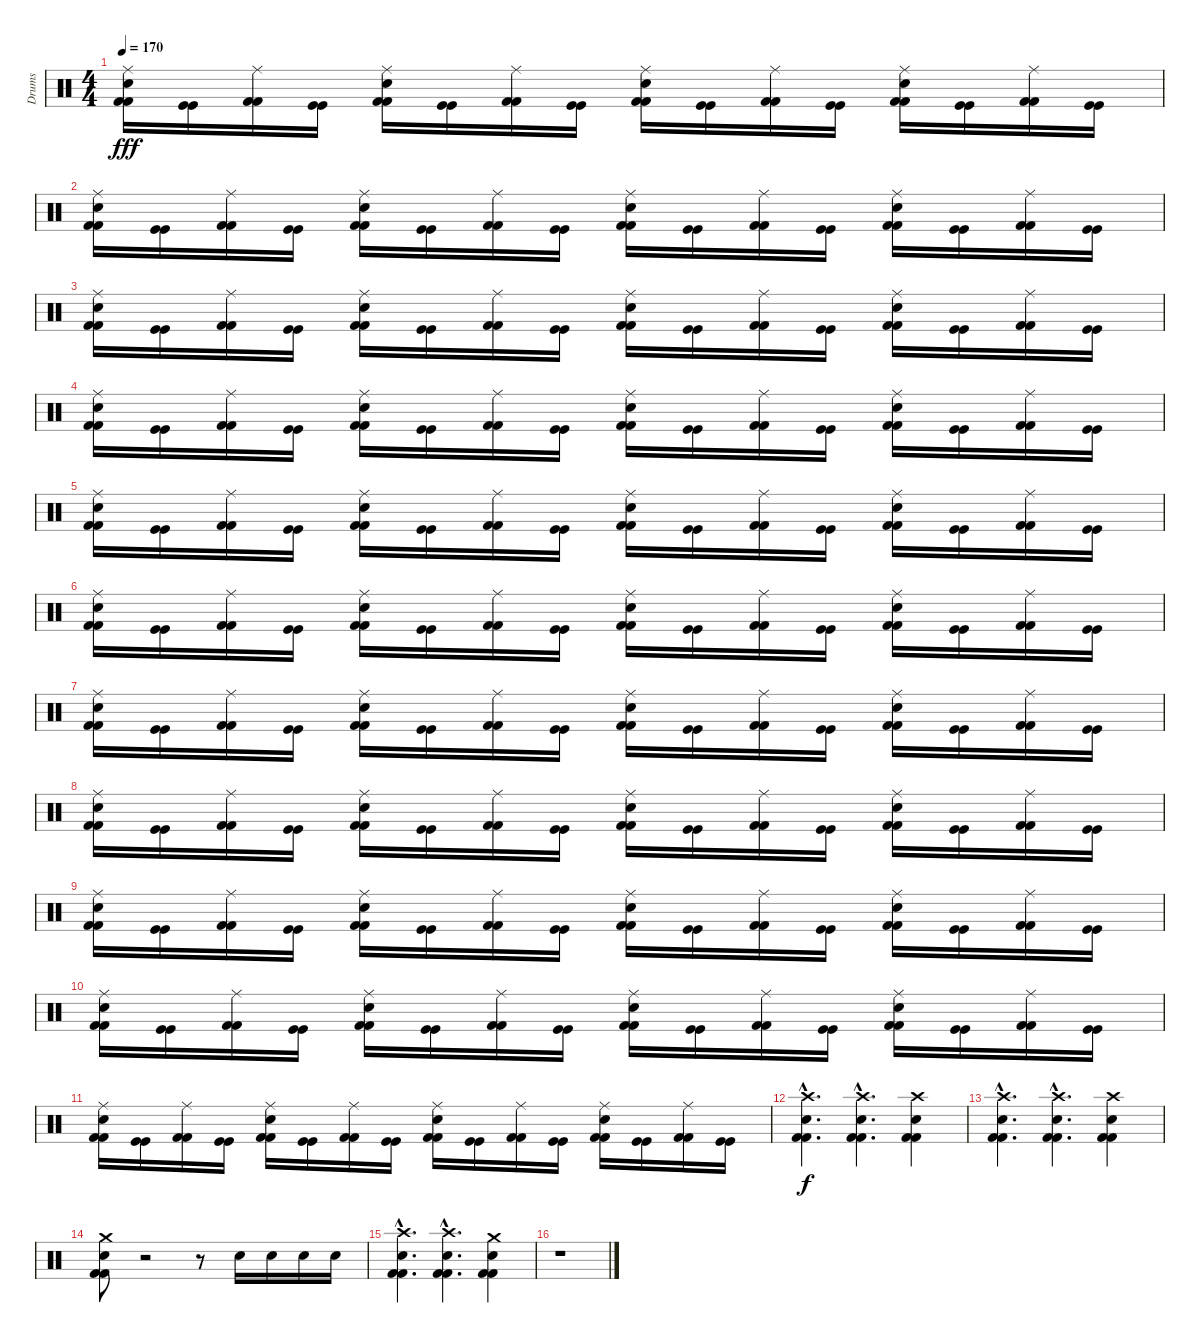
\track ("Drums" "Drums") {instrument percussion}
\staff {score}
\articulation defaults
\ts (4 4)
\tempo 170
\clef neutral
\ks c
("Kick (hit) 2" "Kick (hit) 2" "Electric Snare (hit)" "Ride (middle)").16{dy fff} ("Kick (hit)" "Kick (hit)").16 ("Kick (hit) 2" "Kick (hit) 2" "Ride (middle)").16 ("Kick (hit)" "Kick (hit)").16 ("Kick (hit) 2" "Kick (hit) 2" "Electric Snare (hit)" "Ride (middle)").16 ("Kick (hit)" "Kick (hit)").16 ("Kick (hit) 2" "Kick (hit) 2" "Ride (middle)").16 ("Kick (hit)" "Kick (hit)").16 ("Kick (hit) 2" "Kick (hit) 2" "Electric Snare (hit)" "Ride (middle)").16 ("Kick (hit)" "Kick (hit)").16 ("Kick (hit) 2" "Kick (hit) 2" "Ride (middle)").16 ("Kick (hit)" "Kick (hit)").16 ("Kick (hit) 2" "Kick (hit) 2" "Electric Snare (hit)" "Ride (middle)").16 ("Kick (hit)" "Kick (hit)").16 ("Kick (hit) 2" "Kick (hit) 2" "Ride (middle)").16 ("Kick (hit)" "Kick (hit)").16 |
("Kick (hit) 2" "Kick (hit) 2" "Electric Snare (hit)" "Ride (middle)").16 ("Kick (hit)" "Kick (hit)").16 ("Kick (hit) 2" "Kick (hit) 2" "Ride (middle)").16 ("Kick (hit)" "Kick (hit)").16 ("Kick (hit) 2" "Kick (hit) 2" "Electric Snare (hit)" "Ride (middle)").16 ("Kick (hit)" "Kick (hit)").16 ("Kick (hit) 2" "Kick (hit) 2" "Ride (middle)").16 ("Kick (hit)" "Kick (hit)").16 ("Kick (hit) 2" "Kick (hit) 2" "Electric Snare (hit)" "Ride (middle)").16 ("Kick (hit)" "Kick (hit)").16 ("Kick (hit) 2" "Kick (hit) 2" "Ride (middle)").16 ("Kick (hit)" "Kick (hit)").16 ("Kick (hit) 2" "Kick (hit) 2" "Electric Snare (hit)" "Ride (middle)").16 ("Kick (hit)" "Kick (hit)").16 ("Kick (hit) 2" "Kick (hit) 2" "Ride (middle)").16 ("Kick (hit)" "Kick (hit)").16 |
("Kick (hit) 2" "Kick (hit) 2" "Electric Snare (hit)" "Ride (middle)").16 ("Kick (hit)" "Kick (hit)").16 ("Kick (hit) 2" "Kick (hit) 2" "Ride (middle)").16 ("Kick (hit)" "Kick (hit)").16 ("Kick (hit) 2" "Kick (hit) 2" "Electric Snare (hit)" "Ride (middle)").16 ("Kick (hit)" "Kick (hit)").16 ("Kick (hit) 2" "Kick (hit) 2" "Ride (middle)").16 ("Kick (hit)" "Kick (hit)").16 ("Kick (hit) 2" "Kick (hit) 2" "Electric Snare (hit)" "Ride (middle)").16 ("Kick (hit)" "Kick (hit)").16 ("Kick (hit) 2" "Kick (hit) 2" "Ride (middle)").16 ("Kick (hit)" "Kick (hit)").16 ("Kick (hit) 2" "Kick (hit) 2" "Electric Snare (hit)" "Ride (middle)").16 ("Kick (hit)" "Kick (hit)").16 ("Kick (hit) 2" "Kick (hit) 2" "Ride (middle)").16 ("Kick (hit)" "Kick (hit)").16 |
("Kick (hit) 2" "Kick (hit) 2" "Electric Snare (hit)" "Ride (middle)").16 ("Kick (hit)" "Kick (hit)").16 ("Kick (hit) 2" "Kick (hit) 2" "Ride (middle)").16 ("Kick (hit)" "Kick (hit)").16 ("Kick (hit) 2" "Kick (hit) 2" "Electric Snare (hit)" "Ride (middle)").16 ("Kick (hit)" "Kick (hit)").16 ("Kick (hit) 2" "Kick (hit) 2" "Ride (middle)").16 ("Kick (hit)" "Kick (hit)").16 ("Kick (hit) 2" "Kick (hit) 2" "Electric Snare (hit)" "Ride (middle)").16 ("Kick (hit)" "Kick (hit)").16 ("Kick (hit) 2" "Kick (hit) 2" "Ride (middle)").16 ("Kick (hit)" "Kick (hit)").16 ("Kick (hit) 2" "Kick (hit) 2" "Electric Snare (hit)" "Ride (middle)").16 ("Kick (hit)" "Kick (hit)").16 ("Kick (hit) 2" "Kick (hit) 2" "Ride (middle)").16 ("Kick (hit)" "Kick (hit)").16 |
("Kick (hit) 2" "Kick (hit) 2" "Electric Snare (hit)" "Ride (middle)").16 ("Kick (hit)" "Kick (hit)").16 ("Kick (hit) 2" "Kick (hit) 2" "Ride (middle)").16 ("Kick (hit)" "Kick (hit)").16 ("Kick (hit) 2" "Kick (hit) 2" "Electric Snare (hit)" "Ride (middle)").16 ("Kick (hit)" "Kick (hit)").16 ("Kick (hit) 2" "Kick (hit) 2" "Ride (middle)").16 ("Kick (hit)" "Kick (hit)").16 ("Kick (hit) 2" "Kick (hit) 2" "Electric Snare (hit)" "Ride (middle)").16 ("Kick (hit)" "Kick (hit)").16 ("Kick (hit) 2" "Kick (hit) 2" "Ride (middle)").16 ("Kick (hit)" "Kick (hit)").16 ("Kick (hit) 2" "Kick (hit) 2" "Electric Snare (hit)" "Ride (middle)").16 ("Kick (hit)" "Kick (hit)").16 ("Kick (hit) 2" "Kick (hit) 2" "Ride (middle)").16 ("Kick (hit)" "Kick (hit)").16 |
("Kick (hit) 2" "Kick (hit) 2" "Electric Snare (hit)" "Ride (middle)").16 ("Kick (hit)" "Kick (hit)").16 ("Kick (hit) 2" "Kick (hit) 2" "Ride (middle)").16 ("Kick (hit)" "Kick (hit)").16 ("Kick (hit) 2" "Kick (hit) 2" "Electric Snare (hit)" "Ride (middle)").16 ("Kick (hit)" "Kick (hit)").16 ("Kick (hit) 2" "Kick (hit) 2" "Ride (middle)").16 ("Kick (hit)" "Kick (hit)").16 ("Kick (hit) 2" "Kick (hit) 2" "Electric Snare (hit)" "Ride (middle)").16 ("Kick (hit)" "Kick (hit)").16 ("Kick (hit) 2" "Kick (hit) 2" "Ride (middle)").16 ("Kick (hit)" "Kick (hit)").16 ("Kick (hit) 2" "Kick (hit) 2" "Electric Snare (hit)" "Ride (middle)").16 ("Kick (hit)" "Kick (hit)").16 ("Kick (hit) 2" "Kick (hit) 2" "Ride (middle)").16 ("Kick (hit)" "Kick (hit)").16 |
("Kick (hit) 2" "Kick (hit) 2" "Electric Snare (hit)" "Ride (middle)").16 ("Kick (hit)" "Kick (hit)").16 ("Kick (hit) 2" "Kick (hit) 2" "Ride (middle)").16 ("Kick (hit)" "Kick (hit)").16 ("Kick (hit) 2" "Kick (hit) 2" "Electric Snare (hit)" "Ride (middle)").16 ("Kick (hit)" "Kick (hit)").16 ("Kick (hit) 2" "Kick (hit) 2" "Ride (middle)").16 ("Kick (hit)" "Kick (hit)").16 ("Kick (hit) 2" "Kick (hit) 2" "Electric Snare (hit)" "Ride (middle)").16 ("Kick (hit)" "Kick (hit)").16 ("Kick (hit) 2" "Kick (hit) 2" "Ride (middle)").16 ("Kick (hit)" "Kick (hit)").16 ("Kick (hit) 2" "Kick (hit) 2" "Electric Snare (hit)" "Ride (middle)").16 ("Kick (hit)" "Kick (hit)").16 ("Kick (hit) 2" "Kick (hit) 2" "Ride (middle)").16 ("Kick (hit)" "Kick (hit)").16 |
("Kick (hit) 2" "Kick (hit) 2" "Electric Snare (hit)" "Ride (middle)").16 ("Kick (hit)" "Kick (hit)").16 ("Kick (hit) 2" "Kick (hit) 2" "Ride (middle)").16 ("Kick (hit)" "Kick (hit)").16 ("Kick (hit) 2" "Kick (hit) 2" "Electric Snare (hit)" "Ride (middle)").16 ("Kick (hit)" "Kick (hit)").16 ("Kick (hit) 2" "Kick (hit) 2" "Ride (middle)").16 ("Kick (hit)" "Kick (hit)").16 ("Kick (hit) 2" "Kick (hit) 2" "Electric Snare (hit)" "Ride (middle)").16 ("Kick (hit)" "Kick (hit)").16 ("Kick (hit) 2" "Kick (hit) 2" "Ride (middle)").16 ("Kick (hit)" "Kick (hit)").16 ("Kick (hit) 2" "Kick (hit) 2" "Electric Snare (hit)" "Ride (middle)").16 ("Kick (hit)" "Kick (hit)").16 ("Kick (hit) 2" "Kick (hit) 2" "Ride (middle)").16 ("Kick (hit)" "Kick (hit)").16 |
("Kick (hit) 2" "Kick (hit) 2" "Electric Snare (hit)" "Ride (middle)").16 ("Kick (hit)" "Kick (hit)").16 ("Kick (hit) 2" "Kick (hit) 2" "Ride (middle)").16 ("Kick (hit)" "Kick (hit)").16 ("Kick (hit) 2" "Kick (hit) 2" "Electric Snare (hit)" "Ride (middle)").16 ("Kick (hit)" "Kick (hit)").16 ("Kick (hit) 2" "Kick (hit) 2" "Ride (middle)").16 ("Kick (hit)" "Kick (hit)").16 ("Kick (hit) 2" "Kick (hit) 2" "Electric Snare (hit)" "Ride (middle)").16 ("Kick (hit)" "Kick (hit)").16 ("Kick (hit) 2" "Kick (hit) 2" "Ride (middle)").16 ("Kick (hit)" "Kick (hit)").16 ("Kick (hit) 2" "Kick (hit) 2" "Electric Snare (hit)" "Ride (middle)").16 ("Kick (hit)" "Kick (hit)").16 ("Kick (hit) 2" "Kick (hit) 2" "Ride (middle)").16 ("Kick (hit)" "Kick (hit)").16 |
("Kick (hit) 2" "Kick (hit) 2" "Electric Snare (hit)" "Ride (middle)").16 ("Kick (hit)" "Kick (hit)").16 ("Kick (hit) 2" "Kick (hit) 2" "Ride (middle)").16 ("Kick (hit)" "Kick (hit)").16 ("Kick (hit) 2" "Kick (hit) 2" "Electric Snare (hit)" "Ride (middle)").16 ("Kick (hit)" "Kick (hit)").16 ("Kick (hit) 2" "Kick (hit) 2" "Ride (middle)").16 ("Kick (hit)" "Kick (hit)").16 ("Kick (hit) 2" "Kick (hit) 2" "Electric Snare (hit)" "Ride (middle)").16 ("Kick (hit)" "Kick (hit)").16 ("Kick (hit) 2" "Kick (hit) 2" "Ride (middle)").16 ("Kick (hit)" "Kick (hit)").16 ("Kick (hit) 2" "Kick (hit) 2" "Electric Snare (hit)" "Ride (middle)").16 ("Kick (hit)" "Kick (hit)").16 ("Kick (hit) 2" "Kick (hit) 2" "Ride (middle)").16 ("Kick (hit)" "Kick (hit)").16 |
("Kick (hit) 2" "Kick (hit) 2" "Electric Snare (hit)" "Ride (middle)").16 ("Kick (hit)" "Kick (hit)").16 ("Kick (hit) 2" "Kick (hit) 2" "Ride (middle)").16 ("Kick (hit)" "Kick (hit)").16 ("Kick (hit) 2" "Kick (hit) 2" "Electric Snare (hit)" "Ride (middle)").16 ("Kick (hit)" "Kick (hit)").16 ("Kick (hit) 2" "Kick (hit) 2" "Ride (middle)").16 ("Kick (hit)" "Kick (hit)").16 ("Kick (hit) 2" "Kick (hit) 2" "Electric Snare (hit)" "Ride (middle)").16 ("Kick (hit)" "Kick (hit)").16 ("Kick (hit) 2" "Kick (hit) 2" "Ride (middle)").16 ("Kick (hit)" "Kick (hit)").16 ("Kick (hit) 2" "Kick (hit) 2" "Electric Snare (hit)" "Ride (middle)").16 ("Kick (hit)" "Kick (hit)").16 ("Kick (hit) 2" "Kick (hit) 2" "Ride (middle)").16 ("Kick (hit)" "Kick (hit)").16 |
("Kick (hit) 2"{hac} "Kick (hit) 2"{hac} "Electric Snare (hit)"{hac} "Crash high (hit)"{hac}).4{d dy f} ("Kick (hit) 2"{hac} "Kick (hit) 2"{hac} "Electric Snare (hit)"{hac} "Crash high (hit)"{hac}).4{d} ("Kick (hit) 2" "Kick (hit) 2" "Electric Snare (hit)" "Crash high (hit)").4 |
("Kick (hit) 2"{hac} "Kick (hit) 2"{hac} "Electric Snare (hit)"{hac} "Crash high (hit)"{hac}).4{d} ("Kick (hit) 2"{hac} "Kick (hit) 2"{hac} "Electric Snare (hit)"{hac} "Crash high (hit)"{hac}).4{d} ("Kick (hit) 2" "Kick (hit) 2" "Electric Snare (hit)" "Crash high (hit)").4 |
("Kick (hit) 2" "Kick (hit) 2" "Electric Snare (hit)" "Crash medium (hit)").8 r.2 r.8 "Electric Snare (hit)".16 "Electric Snare (hit)".16 "Electric Snare (hit)".16 "Electric Snare (hit)".16 |
("Kick (hit) 2"{hac} "Kick (hit) 2"{hac} "Electric Snare (hit)"{hac} "Crash high (hit)"{hac}).4{d} ("Kick (hit) 2"{hac} "Kick (hit) 2"{hac} "Electric Snare (hit)"{hac} "Crash high (hit)"{hac}).4{d} ("Kick (hit) 2" "Kick (hit) 2" "Electric Snare (hit)" "Crash medium (hit)").4 |
r.1
